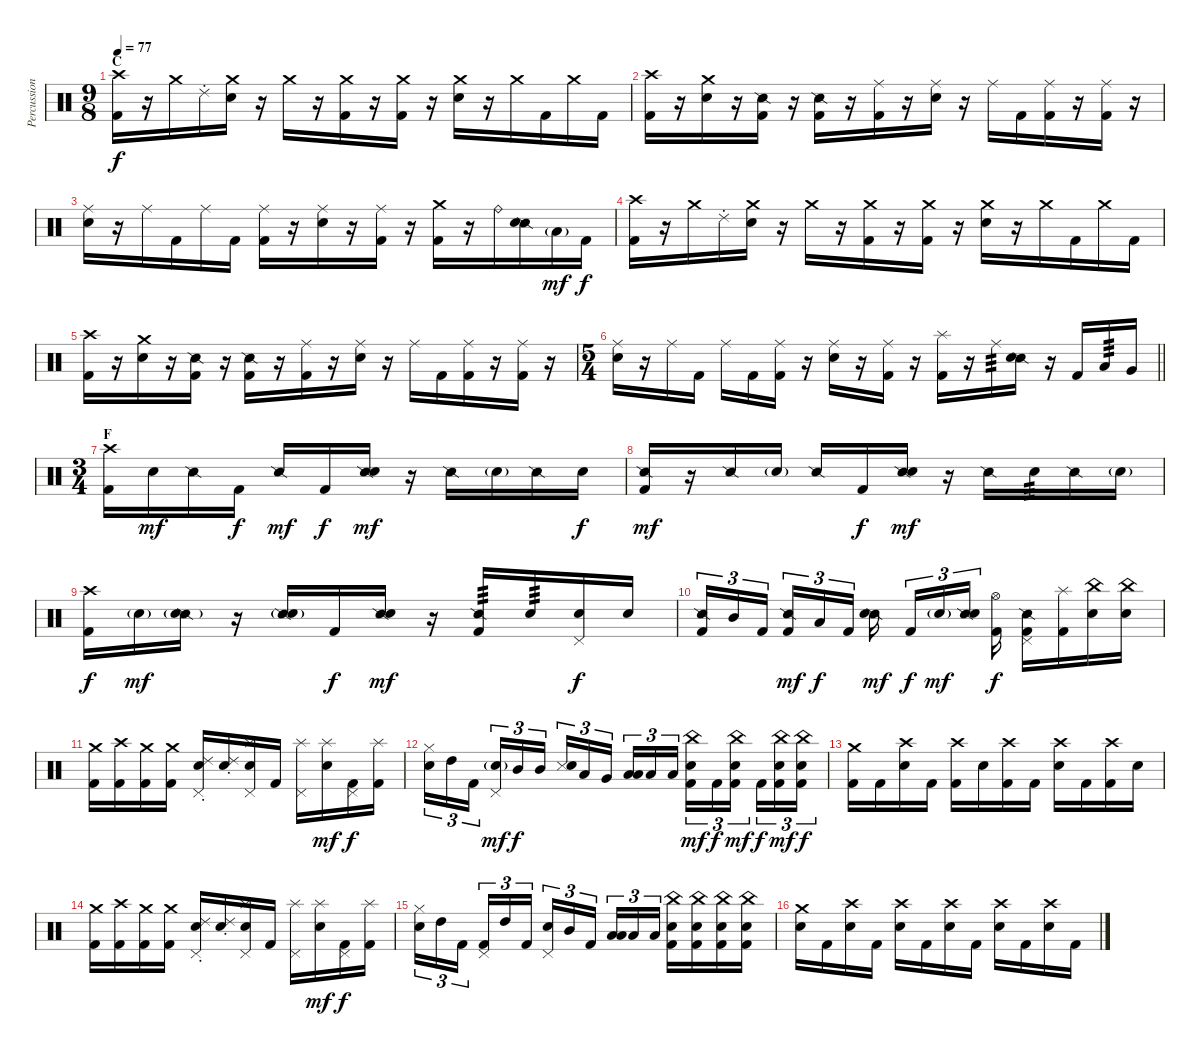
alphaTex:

\track ("Percussion" "Percussion") {instrument percussion}
\staff {score}
\articulation defaults
\ts (9 8)
\section ("" "C")
\tempo 77
\clef neutral
\ks c
("Crash high (hit)" "Kick (hit) 2").16{dy f} r.16 "Crash medium (hit)".16 "Ride (choke) 2".16 ("Crash medium (hit)" "Snare (hit) 2").16 r.16 "Crash medium (hit)".16 r.16 ("Crash medium (hit)" "Kick (hit) 2").16 r.16 ("Crash medium (hit)" "Kick (hit) 2").16 r.16 ("Crash medium (hit)" "Snare (hit) 2").16 r.16 "Crash medium (hit)".16 "Kick (hit) 2".16 "Crash medium (hit)".16 "Kick (hit) 2".16 |
("Crash high (hit)" "Kick (hit) 2").16 r.16 ("Crash medium (hit)" "Snare (hit) 2").16 r.16 ("Snare (side stick) 2" "Kick (hit) 2").16 r.16 ("Snare (side stick) 2" "Kick (hit) 2").16 r.16 ("Ride (middle)" "Kick (hit) 2").16 r.16 ("Ride (middle)" "Snare (hit) 2").16 r.16 "Ride (middle)".16 "Kick (hit) 2".16 ("Ride (middle)" "Kick (hit) 2").16 r.16 ("Ride (middle)" "Kick (hit) 2").16 r.16 |
("Ride (middle)" "Snare (hit) 2").16 r.16 "Ride (middle)".16 "Kick (hit) 2".16 "Ride (middle)".16 "Kick (hit) 2".16 ("Ride (middle)" "Kick (hit) 2").16 r.16 ("Ride (middle)" "Snare (hit) 2").16 r.16 ("Ride (middle)" "Kick (hit) 2").16 r.16 ("Crash medium (hit)" "Kick (hit) 2").16 r.16 "Ride (bell)".16 ("Snare (side stick) 2" "Snare (hit) 2").16 "Low Tom (hit)"{g}.16{dy mf} "Kick (hit) 2".16{dy f} |
("Crash high (hit)" "Kick (hit) 2").16 r.16 "Crash medium (hit)".16 "Ride (choke) 2".16 ("Crash medium (hit)" "Snare (hit) 2").16 r.16 "Crash medium (hit)".16 r.16 ("Crash medium (hit)" "Kick (hit) 2").16 r.16 ("Crash medium (hit)" "Kick (hit) 2").16 r.16 ("Crash medium (hit)" "Snare (hit) 2").16 r.16 "Crash medium (hit)".16 "Kick (hit) 2".16 "Crash medium (hit)".16 "Kick (hit) 2".16 |
("Crash high (hit)" "Kick (hit) 2").16 r.16 ("Crash medium (hit)" "Snare (hit) 2").16 r.16 ("Snare (side stick) 2" "Kick (hit) 2").16 r.16 ("Snare (side stick) 2" "Kick (hit) 2").16 r.16 ("Ride (middle)" "Kick (hit) 2").16 r.16 ("Ride (middle)" "Snare (hit) 2").16 r.16 "Ride (middle)".16 "Kick (hit) 2".16 ("Ride (middle)" "Kick (hit) 2").16 r.16 ("Ride (middle)" "Kick (hit) 2").16 r.16 |
\ts (5 4)
\barLineRight lightlight
("Ride (middle)" "Snare (hit) 2").16 r.16 "Ride (middle)".16 "Kick (hit) 2".16 "Ride (middle)".16 "Kick (hit) 2".16 ("Ride (middle)" "Kick (hit) 2").16 r.16 ("Ride (middle)" "Snare (hit) 2").16 r.16 ("Ride (middle)" "Kick (hit) 2").16 r.16 ("Splash (hit)" "Kick (hit) 2").16 r.16 "Ride (middle)".16{tp 3} ("Snare (side stick) 2" "Snare (hit) 2").16 r.16 "Kick (hit) 2".16 "Low Tom (hit)".16{tp 3} "Very Low Tom (hit)".16 |
\ts (3 4)
\section ("" "F")
("Crash high (hit)" "Kick (hit) 2").16 "Snare (hit) 2".16{dy mf} "Snare (side stick) 2".16 "Kick (hit) 2".16{dy f} "Snare (side stick) 2".16{dy mf} "Kick (hit) 2".16{dy f} ("Snare (side stick) 2" "Snare (hit) 2").16{dy mf} r.16 "Snare (side stick) 2".16 "Snare (hit) 2"{g}.16 "Snare (side stick) 2".16 "Snare (hit) 2".16{dy f} |
("Snare (side stick) 2" "Kick (hit) 2").16{dy mf} r.16 "Snare (side stick) 2".16 "Snare (hit) 2"{g}.16 "Snare (side stick) 2".16 "Kick (hit) 2".16{dy f} ("Snare (side stick) 2" "Snare (hit) 2").16{dy mf} r.16 "Snare (side stick) 2".16 "Snare (hit) 2".16{tp 3} "Snare (side stick) 2".16 "Snare (hit) 2"{g}.16 |
("Crash high (hit)" "Kick (hit) 2").16{dy f} "Snare (hit) 2"{g}.16{dy mf} ("Snare (side stick) 2" "Snare (hit) 2"{g}).16 r.16 ("Snare (side stick) 2" "Snare (hit) 2"{g}).16 "Kick (hit) 2".16{dy f} ("Snare (side stick) 2" "Snare (hit) 2").16{dy mf} r.16 ("Snare (side stick) 2" "Kick (hit) 2").16{tp 3} "Snare (hit) 2".16{tp 3} ("Pedal Hi-Hat (hit)" "Snare (hit) 2").16{dy f} "Snare (hit) 2".16 |
("Snare (side stick) 2" "Kick (hit) 2").16{tu (3 2)} "Mid Tom (hit)".16{tu (3 2)} "Kick (hit) 2".16{tu (3 2) beam splitsecondary} ("Snare (side stick) 2" "Kick (hit) 2").16{tu (3 2) dy mf} "Low Tom (hit)".16{tu (3 2) dy f} "Kick (hit) 2".16{tu (3 2)} ("Snare (side stick) 2" "Snare (hit) 2").16{dy mf beam splitsecondary} "Kick (hit) 2".16{tu (3 2) dy f} "Snare (hit) 2"{g}.16{tu (3 2) dy mf} ("Snare (side stick) 2" "Snare (hit) 2").16{tu (3 2) beam splitsecondary} ("Hi-Hat (open)" "Kick (hit) 2").16{dy f} ("Snare (side stick) 2" "Pedal Hi-Hat (hit)" "Kick (hit) 2").16 ("Splash (hit)" "Kick (hit) 2").16 ("China (hit)" "Snare (hit) 2").16 ("China (hit)" "Snare (hit) 2").16 |
("Crash medium (hit)" "Kick (hit) 2").16 ("Crash high (hit)" "Kick (hit) 2").16 ("Crash medium (hit)" "Kick (hit) 2").16 ("Crash medium (hit)" "Kick (hit) 2").16 ("Ride (choke) 2" "Pedal Hi-Hat (hit)" "Snare (hit) 2").16 ("Ride (choke) 2" "Snare (hit) 2").16 ("Splash (hit)" "Pedal Hi-Hat (hit)" "Snare (hit) 2").16 "Kick (hit) 2".16 ("Splash (hit)" "Pedal Hi-Hat (hit)").16 ("Splash (hit)" "Snare (hit) 2").16{dy mf} ("Pedal Hi-Hat (hit)" "Kick (hit) 2").16{dy f} ("Splash (hit)" "Kick (hit) 2").16 |
("Hi-Hat (closed)" "Snare (hit) 2").16{tu (3 2)} "High Tom (hit)".16{tu (3 2)} "Kick (hit) 2".16{tu (3 2) beam splitsecondary} ("Pedal Hi-Hat (hit)" "Snare (hit) 2"{g}).16{tu (3 2) dy mf} "Mid Tom (hit)".16{tu (3 2) dy f} "Mid Tom (hit)".16{tu (3 2)} ("Metronome (hit)" "Snare (hit) 2").16{tu (3 2) bu 120} "Low Tom (hit)".16{tu (3 2)} "Very Low Tom (hit)".16{tu (3 2) beam splitsecondary} ("Low Floor Tom (hit)" "Low Floor Tom (hit)").16{tu (3 2) bu 60} "Low Floor Tom (hit)".16{tu (3 2)} "Low Floor Tom (hit)".16{tu (3 2)} ("China (hit)" "Snare (hit) 2" "Kick (hit) 2").16{tu (3 2) dy mf} "Kick (hit) 2".16{tu (3 2) dy f} ("China (hit)" "Snare (hit) 2" "Kick (hit) 2").16{tu (3 2) dy mf beam splitsecondary} "Kick (hit) 2".16{tu (3 2) dy f} ("China (hit)" "Snare (hit) 2" "Kick (hit) 2").16{tu (3 2) dy mf} ("China (hit)" "Snare (hit) 2" "Kick (hit) 2").16{tu (3 2) dy f} |
("Crash medium (hit)" "Kick (hit) 2").16 "Kick (hit) 2".16 ("Crash high (hit)" "Snare (hit) 2").16 "Kick (hit) 2".16 ("Crash high (hit)" "Kick (hit) 2").16 "Snare (hit) 2".16 ("Crash high (hit)" "Kick (hit) 2").16 "Kick (hit) 2".16 ("Crash high (hit)" "Snare (hit) 2").16 "Kick (hit) 2".16 ("Crash high (hit)" "Kick (hit) 2").16 "Snare (hit) 2".16 |
("Crash medium (hit)" "Kick (hit) 2").16 ("Crash high (hit)" "Kick (hit) 2").16 ("Crash medium (hit)" "Kick (hit) 2").16 ("Crash medium (hit)" "Kick (hit) 2").16 ("Ride (choke) 2" "Pedal Hi-Hat (hit)" "Snare (hit) 2").16 ("Ride (choke) 2" "Snare (hit) 2").16 ("Splash (hit)" "Pedal Hi-Hat (hit)" "Snare (hit) 2").16 "Kick (hit) 2".16 ("Splash (hit)" "Pedal Hi-Hat (hit)").16 ("Splash (hit)" "Snare (hit) 2").16{dy mf} ("Pedal Hi-Hat (hit)" "Kick (hit) 2").16{dy f} ("Splash (hit)" "Kick (hit) 2").16 |
("Hi-Hat (closed)" "Snare (hit) 2").16{tu (3 2)} "High Tom (hit)".16{tu (3 2)} "Kick (hit) 2".16{tu (3 2) beam splitsecondary} ("Pedal Hi-Hat (hit)" "Kick (hit) 2").16{tu (3 2)} "High Tom (hit)".16{tu (3 2)} "Kick (hit) 2".16{tu (3 2)} ("Pedal Hi-Hat (hit)" "Snare (hit) 2").16{tu (3 2)} "Mid Tom (hit)".16{tu (3 2)} "Kick (hit) 2".16{tu (3 2) beam splitsecondary} ("Low Floor Tom (hit)" "Low Floor Tom (hit)").16{tu (3 2) bu 60} "Low Floor Tom (hit)".16{tu (3 2)} "Low Floor Tom (hit)".16{tu (3 2)} ("China (hit)" "Snare (hit) 2" "Kick (hit) 2").16 ("China (hit)" "Snare (hit) 2" "Kick (hit) 2").16 ("China (hit)" "Snare (hit) 2" "Kick (hit) 2").16 ("China (hit)" "Snare (hit) 2" "Kick (hit) 2").16 |
("Crash medium (hit)" "Snare (hit) 2").16 "Kick (hit) 2".16 ("Crash high (hit)" "Snare (hit) 2").16 "Kick (hit) 2".16 ("Crash high (hit)" "Snare (hit) 2").16 "Kick (hit) 2".16 ("Crash high (hit)" "Snare (hit) 2").16 "Kick (hit) 2".16 ("Crash high (hit)" "Snare (hit) 2").16 "Kick (hit) 2".16 ("Crash high (hit)" "Snare (hit) 2").16 "Kick (hit) 2".16
